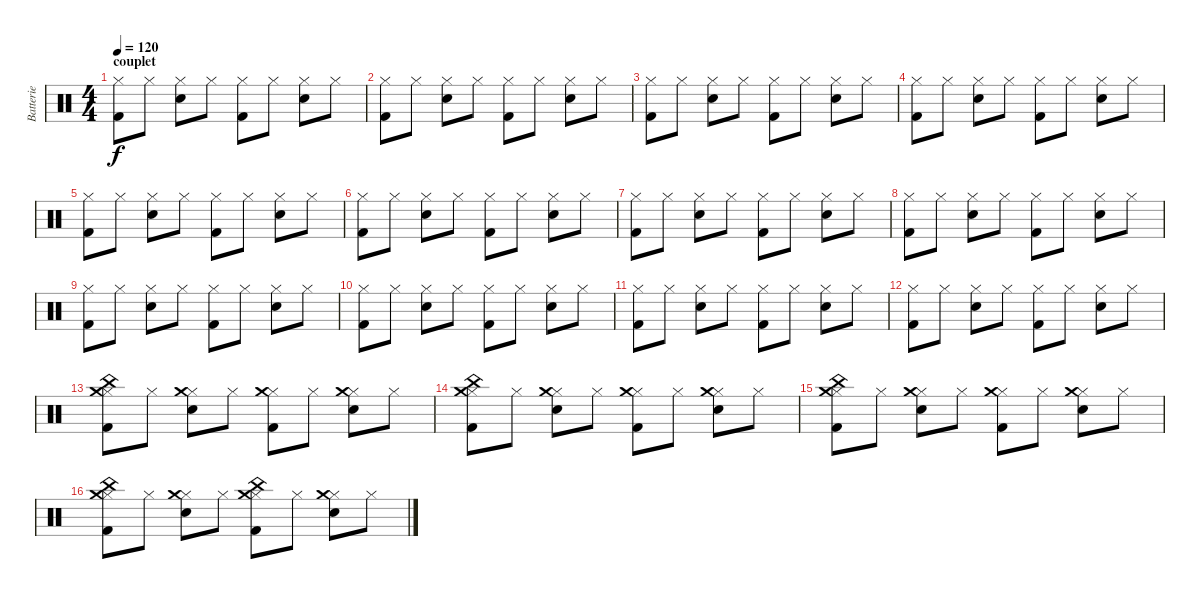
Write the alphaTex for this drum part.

\track ("Batterie" "Batterie") {instrument percussion}
\staff {score}
\articulation defaults
\ts (4 4)
\section ("" "couplet")
\tempo 120
\clef neutral
\ks c
("Hi-Hat (closed)" "Kick (hit) 2").8{dy f} "Hi-Hat (closed)".8 ("Hi-Hat (closed)" "Electric Snare (hit)").8 "Hi-Hat (closed)".8 ("Hi-Hat (closed)" "Kick (hit) 2").8 "Hi-Hat (closed)".8 ("Hi-Hat (closed)" "Electric Snare (hit)").8 "Hi-Hat (closed)".8 |
("Hi-Hat (closed)" "Kick (hit) 2").8 "Hi-Hat (closed)".8 ("Hi-Hat (closed)" "Electric Snare (hit)").8 "Hi-Hat (closed)".8 ("Hi-Hat (closed)" "Kick (hit) 2").8 "Hi-Hat (closed)".8 ("Hi-Hat (closed)" "Electric Snare (hit)").8 "Hi-Hat (closed)".8 |
("Hi-Hat (closed)" "Kick (hit) 2").8 "Hi-Hat (closed)".8 ("Hi-Hat (closed)" "Electric Snare (hit)").8 "Hi-Hat (closed)".8 ("Hi-Hat (closed)" "Kick (hit) 2").8 "Hi-Hat (closed)".8 ("Hi-Hat (closed)" "Electric Snare (hit)").8 "Hi-Hat (closed)".8 |
("Hi-Hat (closed)" "Kick (hit) 2").8 "Hi-Hat (closed)".8 ("Hi-Hat (closed)" "Electric Snare (hit)").8 "Hi-Hat (closed)".8 ("Hi-Hat (closed)" "Kick (hit) 2").8 "Hi-Hat (closed)".8 ("Hi-Hat (closed)" "Electric Snare (hit)").8 "Hi-Hat (closed)".8 |
("Hi-Hat (closed)" "Kick (hit) 2").8 "Hi-Hat (closed)".8 ("Hi-Hat (closed)" "Electric Snare (hit)").8 "Hi-Hat (closed)".8 ("Hi-Hat (closed)" "Kick (hit) 2").8 "Hi-Hat (closed)".8 ("Hi-Hat (closed)" "Electric Snare (hit)").8 "Hi-Hat (closed)".8 |
("Hi-Hat (closed)" "Kick (hit) 2").8 "Hi-Hat (closed)".8 ("Hi-Hat (closed)" "Electric Snare (hit)").8 "Hi-Hat (closed)".8 ("Hi-Hat (closed)" "Kick (hit) 2").8 "Hi-Hat (closed)".8 ("Hi-Hat (closed)" "Electric Snare (hit)").8 "Hi-Hat (closed)".8 |
("Hi-Hat (closed)" "Kick (hit) 2").8 "Hi-Hat (closed)".8 ("Hi-Hat (closed)" "Electric Snare (hit)").8 "Hi-Hat (closed)".8 ("Hi-Hat (closed)" "Kick (hit) 2").8 "Hi-Hat (closed)".8 ("Hi-Hat (closed)" "Electric Snare (hit)").8 "Hi-Hat (closed)".8 |
("Hi-Hat (closed)" "Kick (hit) 2").8 "Hi-Hat (closed)".8 ("Hi-Hat (closed)" "Electric Snare (hit)").8 "Hi-Hat (closed)".8 ("Hi-Hat (closed)" "Kick (hit) 2").8 "Hi-Hat (closed)".8 ("Hi-Hat (closed)" "Electric Snare (hit)").8 "Hi-Hat (closed)".8 |
("Hi-Hat (closed)" "Kick (hit) 2").8 "Hi-Hat (closed)".8 ("Hi-Hat (closed)" "Electric Snare (hit)").8 "Hi-Hat (closed)".8 ("Hi-Hat (closed)" "Kick (hit) 2").8 "Hi-Hat (closed)".8 ("Hi-Hat (closed)" "Electric Snare (hit)").8 "Hi-Hat (closed)".8 |
("Hi-Hat (closed)" "Kick (hit) 2").8 "Hi-Hat (closed)".8 ("Hi-Hat (closed)" "Electric Snare (hit)").8 "Hi-Hat (closed)".8 ("Hi-Hat (closed)" "Kick (hit) 2").8 "Hi-Hat (closed)".8 ("Hi-Hat (closed)" "Electric Snare (hit)").8 "Hi-Hat (closed)".8 |
("Hi-Hat (closed)" "Kick (hit) 2").8 "Hi-Hat (closed)".8 ("Hi-Hat (closed)" "Electric Snare (hit)").8 "Hi-Hat (closed)".8 ("Hi-Hat (closed)" "Kick (hit) 2").8 "Hi-Hat (closed)".8 ("Hi-Hat (closed)" "Electric Snare (hit)").8 "Hi-Hat (closed)".8 |
("Hi-Hat (closed)" "Kick (hit) 2").8 "Hi-Hat (closed)".8 ("Hi-Hat (closed)" "Electric Snare (hit)").8 "Hi-Hat (closed)".8 ("Hi-Hat (closed)" "Kick (hit) 2").8 "Hi-Hat (closed)".8 ("Hi-Hat (closed)" "Electric Snare (hit)").8 "Hi-Hat (closed)".8 |
("China (hit)" "Hi-Hat (closed)" "Crash medium (hit)" "Kick (hit) 2").8 "Hi-Hat (closed)".8 ("Hi-Hat (closed)" "Crash medium (hit)" "Electric Snare (hit)").8 "Hi-Hat (closed)".8 ("Hi-Hat (closed)" "Crash medium (hit)" "Kick (hit) 2").8 "Hi-Hat (closed)".8 ("Hi-Hat (closed)" "Crash medium (hit)" "Electric Snare (hit)").8 "Hi-Hat (closed)".8 |
("China (hit)" "Hi-Hat (closed)" "Crash medium (hit)" "Kick (hit) 2").8 "Hi-Hat (closed)".8 ("Hi-Hat (closed)" "Crash medium (hit)" "Electric Snare (hit)").8 "Hi-Hat (closed)".8 ("Hi-Hat (closed)" "Crash medium (hit)" "Kick (hit) 2").8 "Hi-Hat (closed)".8 ("Hi-Hat (closed)" "Crash medium (hit)" "Electric Snare (hit)").8 "Hi-Hat (closed)".8 |
("China (hit)" "Hi-Hat (closed)" "Crash medium (hit)" "Kick (hit) 2").8 "Hi-Hat (closed)".8 ("Hi-Hat (closed)" "Crash medium (hit)" "Electric Snare (hit)").8 "Hi-Hat (closed)".8 ("Hi-Hat (closed)" "Crash medium (hit)" "Kick (hit) 2").8 "Hi-Hat (closed)".8 ("Hi-Hat (closed)" "Crash medium (hit)" "Electric Snare (hit)").8 "Hi-Hat (closed)".8 |
("China (hit)" "Hi-Hat (closed)" "Crash medium (hit)" "Kick (hit) 2").8 "Hi-Hat (closed)".8 ("Hi-Hat (closed)" "Crash medium (hit)" "Electric Snare (hit)").8 "Hi-Hat (closed)".8 ("China (hit)" "Hi-Hat (closed)" "Crash medium (hit)" "Kick (hit) 2").8 "Hi-Hat (closed)".8 ("Hi-Hat (closed)" "Crash medium (hit)" "Electric Snare (hit)").8 "Hi-Hat (closed)".8
